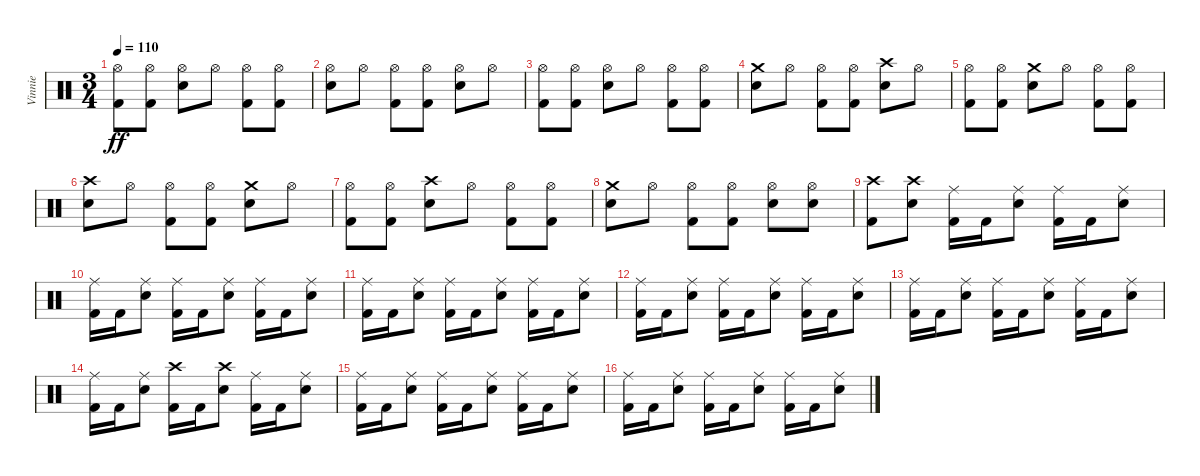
\track ("Vinnie" "Vinnie") {instrument percussion}
\staff {score}
\articulation defaults
\ts (3 4)
\tempo 110
\clef neutral
\ks c
("Kick (hit) 2" "Hi-Hat (open)").8{dy ff} ("Kick (hit) 2" "Hi-Hat (open)").8 ("Electric Snare (hit)" "Hi-Hat (open)").8 "Hi-Hat (open)".8 ("Kick (hit) 2" "Hi-Hat (open)").8 ("Kick (hit) 2" "Hi-Hat (open)").8 |
("Electric Snare (hit)" "Hi-Hat (open)").8 "Hi-Hat (open)".8 ("Kick (hit) 2" "Hi-Hat (open)").8 ("Kick (hit) 2" "Hi-Hat (open)").8 ("Electric Snare (hit)" "Hi-Hat (open)").8 "Hi-Hat (open)".8 |
("Kick (hit) 2" "Hi-Hat (open)").8 ("Kick (hit) 2" "Hi-Hat (open)").8 ("Electric Snare (hit)" "Hi-Hat (open)").8 "Hi-Hat (open)".8 ("Kick (hit) 2" "Hi-Hat (open)").8 ("Kick (hit) 2" "Hi-Hat (open)").8 |
("Electric Snare (hit)" "Crash medium (hit)").8 "Hi-Hat (open)".8 ("Kick (hit) 2" "Hi-Hat (open)").8 ("Kick (hit) 2" "Hi-Hat (open)").8 ("Electric Snare (hit)" "Crash high (hit)").8 "Hi-Hat (open)".8 |
("Kick (hit) 2" "Hi-Hat (open)").8 ("Kick (hit) 2" "Hi-Hat (open)").8 ("Electric Snare (hit)" "Crash medium (hit)").8 "Hi-Hat (open)".8 ("Kick (hit) 2" "Hi-Hat (open)").8 ("Kick (hit) 2" "Hi-Hat (open)").8 |
("Electric Snare (hit)" "Crash high (hit)").8 "Hi-Hat (open)".8 ("Kick (hit) 2" "Hi-Hat (open)").8 ("Kick (hit) 2" "Hi-Hat (open)").8 ("Electric Snare (hit)" "Crash medium (hit)").8 "Hi-Hat (open)".8 |
("Kick (hit) 2" "Hi-Hat (open)").8 ("Kick (hit) 2" "Hi-Hat (open)").8 ("Electric Snare (hit)" "Crash high (hit)").8 "Hi-Hat (open)".8 ("Kick (hit) 2" "Hi-Hat (open)").8 ("Kick (hit) 2" "Hi-Hat (open)").8 |
("Electric Snare (hit)" "Crash medium (hit)").8 "Hi-Hat (open)".8 ("Kick (hit) 2" "Hi-Hat (open)").8 ("Kick (hit) 2" "Hi-Hat (open)").8 ("Electric Snare (hit)" "Hi-Hat (open)").8 ("Hi-Hat (open)" "Electric Snare (hit)").8 |
("Kick (hit) 2" "Crash high (hit)").8 ("Electric Snare (hit)" "Crash high (hit)").8 ("Kick (hit) 2" "Ride (middle)").16 "Kick (hit) 2".16 ("Electric Snare (hit)" "Ride (middle)").8 ("Kick (hit) 2" "Ride (middle)").16 "Kick (hit) 2".16 ("Electric Snare (hit)" "Ride (middle)").8 |
("Kick (hit) 2" "Ride (middle)").16 "Kick (hit) 2".16 ("Electric Snare (hit)" "Ride (middle)").8 ("Kick (hit) 2" "Ride (middle)").16 "Kick (hit) 2".16 ("Electric Snare (hit)" "Ride (middle)").8 ("Kick (hit) 2" "Ride (middle)").16 "Kick (hit) 2".16 ("Electric Snare (hit)" "Ride (middle)").8 |
("Kick (hit) 2" "Ride (middle)").16 "Kick (hit) 2".16 ("Electric Snare (hit)" "Ride (middle)").8 ("Kick (hit) 2" "Ride (middle)").16 "Kick (hit) 2".16 ("Electric Snare (hit)" "Ride (middle)").8 ("Kick (hit) 2" "Ride (middle)").16 "Kick (hit) 2".16 ("Electric Snare (hit)" "Ride (middle)").8 |
("Kick (hit) 2" "Ride (middle)").16 "Kick (hit) 2".16 ("Electric Snare (hit)" "Ride (middle)").8 ("Kick (hit) 2" "Ride (middle)").16 "Kick (hit) 2".16 ("Electric Snare (hit)" "Ride (middle)").8 ("Kick (hit) 2" "Ride (middle)").16 "Kick (hit) 2".16 ("Electric Snare (hit)" "Ride (middle)").8 |
("Kick (hit) 2" "Ride (middle)").16 "Kick (hit) 2".16 ("Electric Snare (hit)" "Ride (middle)").8 ("Kick (hit) 2" "Ride (middle)").16 "Kick (hit) 2".16 ("Electric Snare (hit)" "Ride (middle)").8 ("Kick (hit) 2" "Ride (middle)").16 "Kick (hit) 2".16 ("Electric Snare (hit)" "Ride (middle)").8 |
("Kick (hit) 2" "Ride (middle)").16 "Kick (hit) 2".16 ("Electric Snare (hit)" "Ride (middle)").8 ("Kick (hit) 2" "Crash high (hit)").16 "Kick (hit) 2".16 ("Electric Snare (hit)" "Crash high (hit)").8 ("Kick (hit) 2" "Ride (middle)").16 "Kick (hit) 2".16 ("Electric Snare (hit)" "Ride (middle)").8 |
("Kick (hit) 2" "Ride (middle)").16 "Kick (hit) 2".16 ("Electric Snare (hit)" "Ride (middle)").8 ("Kick (hit) 2" "Ride (middle)").16 "Kick (hit) 2".16 ("Electric Snare (hit)" "Ride (middle)").8 ("Kick (hit) 2" "Ride (middle)").16 "Kick (hit) 2".16 ("Electric Snare (hit)" "Ride (middle)").8 |
("Kick (hit) 2" "Ride (middle)").16 "Kick (hit) 2".16 ("Electric Snare (hit)" "Ride (middle)").8 ("Kick (hit) 2" "Ride (middle)").16 "Kick (hit) 2".16 ("Electric Snare (hit)" "Ride (middle)").8 ("Kick (hit) 2" "Ride (middle)").16 "Kick (hit) 2".16 ("Electric Snare (hit)" "Ride (middle)").8
